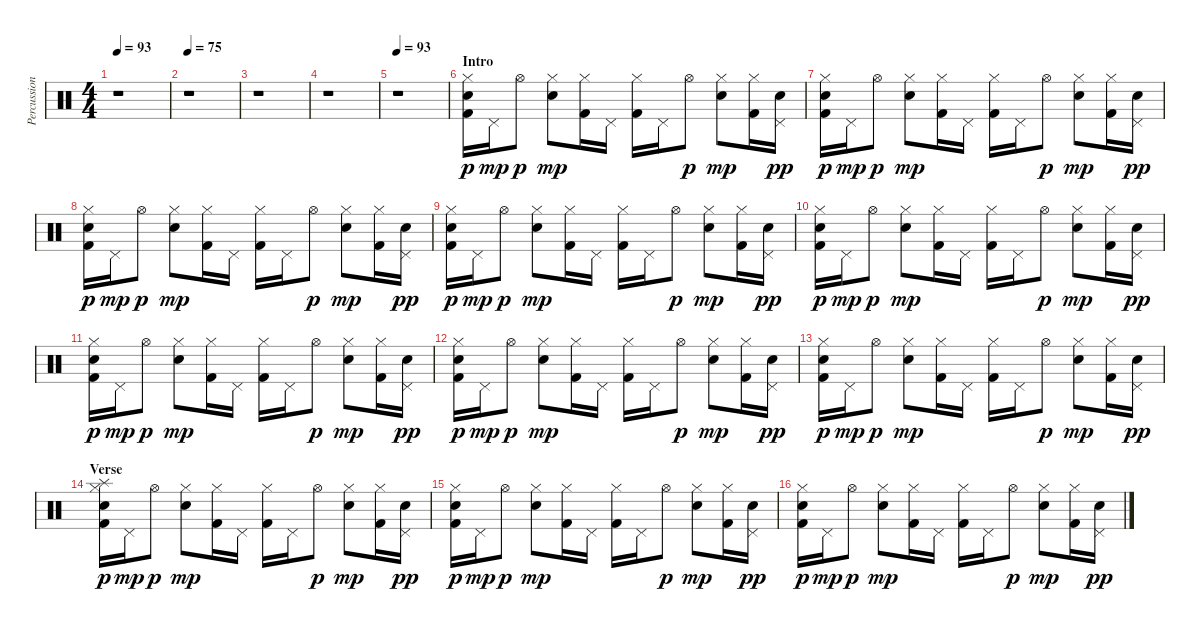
\track ("Percussions" "Percussion") {instrument percussion}
\staff {score}
\articulation defaults
\ts (4 4)
\tempo 93
\clef neutral
\ks c
r.1{dy p} |
\tempo 75
r.1 |
r.1 |
r.1 |
\tempo 93
r.1 |
\section ("" "Intro")
("Hi-Hat (closed)" "Hand Clap (hit)" "Kick (hit) 2").16 "Pedal Hi-Hat (hit)".16{dy mp} "Hi-Hat (open)".8{dy p} ("Hi-Hat (closed)" "Electric Snare (hit)").8{dy mp} ("Hi-Hat (closed)" "Kick (hit) 2").16 "Pedal Hi-Hat (hit)".16 ("Hi-Hat (closed)" "Kick (hit) 2").16 "Pedal Hi-Hat (hit)".16 "Hi-Hat (open)".8{dy p} ("Hi-Hat (closed)" "Electric Snare (hit)").8{dy mp} ("Hi-Hat (closed)" "Kick (hit) 2").16 ("Pedal Hi-Hat (hit)" "Hand Clap (hit)").16{dy pp} |
("Hi-Hat (closed)" "Hand Clap (hit)" "Kick (hit) 2").16{dy p} "Pedal Hi-Hat (hit)".16{dy mp} "Hi-Hat (open)".8{dy p} ("Hi-Hat (closed)" "Electric Snare (hit)").8{dy mp} ("Hi-Hat (closed)" "Kick (hit) 2").16 "Pedal Hi-Hat (hit)".16 ("Hi-Hat (closed)" "Kick (hit) 2").16 "Pedal Hi-Hat (hit)".16 "Hi-Hat (open)".8{dy p} ("Hi-Hat (closed)" "Electric Snare (hit)").8{dy mp} ("Hi-Hat (closed)" "Kick (hit) 2").16 ("Pedal Hi-Hat (hit)" "Hand Clap (hit)").16{dy pp} |
("Hi-Hat (closed)" "Hand Clap (hit)" "Kick (hit) 2").16{dy p} "Pedal Hi-Hat (hit)".16{dy mp} "Hi-Hat (open)".8{dy p} ("Hi-Hat (closed)" "Electric Snare (hit)").8{dy mp} ("Hi-Hat (closed)" "Kick (hit) 2").16 "Pedal Hi-Hat (hit)".16 ("Hi-Hat (closed)" "Kick (hit) 2").16 "Pedal Hi-Hat (hit)".16 "Hi-Hat (open)".8{dy p} ("Hi-Hat (closed)" "Electric Snare (hit)").8{dy mp} ("Hi-Hat (closed)" "Kick (hit) 2").16 ("Pedal Hi-Hat (hit)" "Hand Clap (hit)").16{dy pp} |
("Hi-Hat (closed)" "Hand Clap (hit)" "Kick (hit) 2").16{dy p} "Pedal Hi-Hat (hit)".16{dy mp} "Hi-Hat (open)".8{dy p} ("Hi-Hat (closed)" "Electric Snare (hit)").8{dy mp} ("Hi-Hat (closed)" "Kick (hit) 2").16 "Pedal Hi-Hat (hit)".16 ("Hi-Hat (closed)" "Kick (hit) 2").16 "Pedal Hi-Hat (hit)".16 "Hi-Hat (open)".8{dy p} ("Hi-Hat (closed)" "Electric Snare (hit)").8{dy mp} ("Hi-Hat (closed)" "Kick (hit) 2").16 ("Pedal Hi-Hat (hit)" "Hand Clap (hit)").16{dy pp} |
("Hi-Hat (closed)" "Hand Clap (hit)" "Kick (hit) 2").16{dy p} "Pedal Hi-Hat (hit)".16{dy mp} "Hi-Hat (open)".8{dy p} ("Hi-Hat (closed)" "Electric Snare (hit)").8{dy mp} ("Hi-Hat (closed)" "Kick (hit) 2").16 "Pedal Hi-Hat (hit)".16 ("Hi-Hat (closed)" "Kick (hit) 2").16 "Pedal Hi-Hat (hit)".16 "Hi-Hat (open)".8{dy p} ("Hi-Hat (closed)" "Electric Snare (hit)").8{dy mp} ("Hi-Hat (closed)" "Kick (hit) 2").16 ("Pedal Hi-Hat (hit)" "Hand Clap (hit)").16{dy pp} |
("Hi-Hat (closed)" "Hand Clap (hit)" "Kick (hit) 2").16{dy p} "Pedal Hi-Hat (hit)".16{dy mp} "Hi-Hat (open)".8{dy p} ("Hi-Hat (closed)" "Electric Snare (hit)").8{dy mp} ("Hi-Hat (closed)" "Kick (hit) 2").16 "Pedal Hi-Hat (hit)".16 ("Hi-Hat (closed)" "Kick (hit) 2").16 "Pedal Hi-Hat (hit)".16 "Hi-Hat (open)".8{dy p} ("Hi-Hat (closed)" "Electric Snare (hit)").8{dy mp} ("Hi-Hat (closed)" "Kick (hit) 2").16 ("Pedal Hi-Hat (hit)" "Hand Clap (hit)").16{dy pp} |
("Hi-Hat (closed)" "Hand Clap (hit)" "Kick (hit) 2").16{dy p} "Pedal Hi-Hat (hit)".16{dy mp} "Hi-Hat (open)".8{dy p} ("Hi-Hat (closed)" "Electric Snare (hit)").8{dy mp} ("Hi-Hat (closed)" "Kick (hit) 2").16 "Pedal Hi-Hat (hit)".16 ("Hi-Hat (closed)" "Kick (hit) 2").16 "Pedal Hi-Hat (hit)".16 "Hi-Hat (open)".8{dy p} ("Hi-Hat (closed)" "Electric Snare (hit)").8{dy mp} ("Hi-Hat (closed)" "Kick (hit) 2").16 ("Pedal Hi-Hat (hit)" "Hand Clap (hit)").16{dy pp} |
("Hi-Hat (closed)" "Hand Clap (hit)" "Kick (hit) 2").16{dy p} "Pedal Hi-Hat (hit)".16{dy mp} "Hi-Hat (open)".8{dy p} ("Hi-Hat (closed)" "Electric Snare (hit)").8{dy mp} ("Hi-Hat (closed)" "Kick (hit) 2").16 "Pedal Hi-Hat (hit)".16 ("Hi-Hat (closed)" "Kick (hit) 2").16 "Pedal Hi-Hat (hit)".16 "Hi-Hat (open)".8{dy p} ("Hi-Hat (closed)" "Electric Snare (hit)").8{dy mp} ("Hi-Hat (closed)" "Kick (hit) 2").16 ("Pedal Hi-Hat (hit)" "Hand Clap (hit)").16{dy pp} |
\section ("" "Verse")
("Hi-Hat (closed)" "Splash (hit)" "Hand Clap (hit)" "Kick (hit) 2").16{dy p} "Pedal Hi-Hat (hit)".16{dy mp} "Hi-Hat (open)".8{dy p} ("Hi-Hat (closed)" "Electric Snare (hit)").8{dy mp} ("Hi-Hat (closed)" "Kick (hit) 2").16 "Pedal Hi-Hat (hit)".16 ("Hi-Hat (closed)" "Kick (hit) 2").16 "Pedal Hi-Hat (hit)".16 "Hi-Hat (open)".8{dy p} ("Hi-Hat (closed)" "Electric Snare (hit)").8{dy mp} ("Hi-Hat (closed)" "Kick (hit) 2").16 ("Pedal Hi-Hat (hit)" "Hand Clap (hit)").16{dy pp} |
("Hi-Hat (closed)" "Hand Clap (hit)" "Kick (hit) 2").16{dy p} "Pedal Hi-Hat (hit)".16{dy mp} "Hi-Hat (open)".8{dy p} ("Hi-Hat (closed)" "Electric Snare (hit)").8{dy mp} ("Hi-Hat (closed)" "Kick (hit) 2").16 "Pedal Hi-Hat (hit)".16 ("Hi-Hat (closed)" "Kick (hit) 2").16 "Pedal Hi-Hat (hit)".16 "Hi-Hat (open)".8{dy p} ("Hi-Hat (closed)" "Electric Snare (hit)").8{dy mp} ("Hi-Hat (closed)" "Kick (hit) 2").16 ("Pedal Hi-Hat (hit)" "Hand Clap (hit)").16{dy pp} |
("Hi-Hat (closed)" "Hand Clap (hit)" "Kick (hit) 2").16{dy p} "Pedal Hi-Hat (hit)".16{dy mp} "Hi-Hat (open)".8{dy p} ("Hi-Hat (closed)" "Electric Snare (hit)").8{dy mp} ("Hi-Hat (closed)" "Kick (hit) 2").16 "Pedal Hi-Hat (hit)".16 ("Hi-Hat (closed)" "Kick (hit) 2").16 "Pedal Hi-Hat (hit)".16 "Hi-Hat (open)".8{dy p} ("Hi-Hat (closed)" "Electric Snare (hit)").8{dy mp} ("Hi-Hat (closed)" "Kick (hit) 2").16 ("Pedal Hi-Hat (hit)" "Hand Clap (hit)").16{dy pp}
